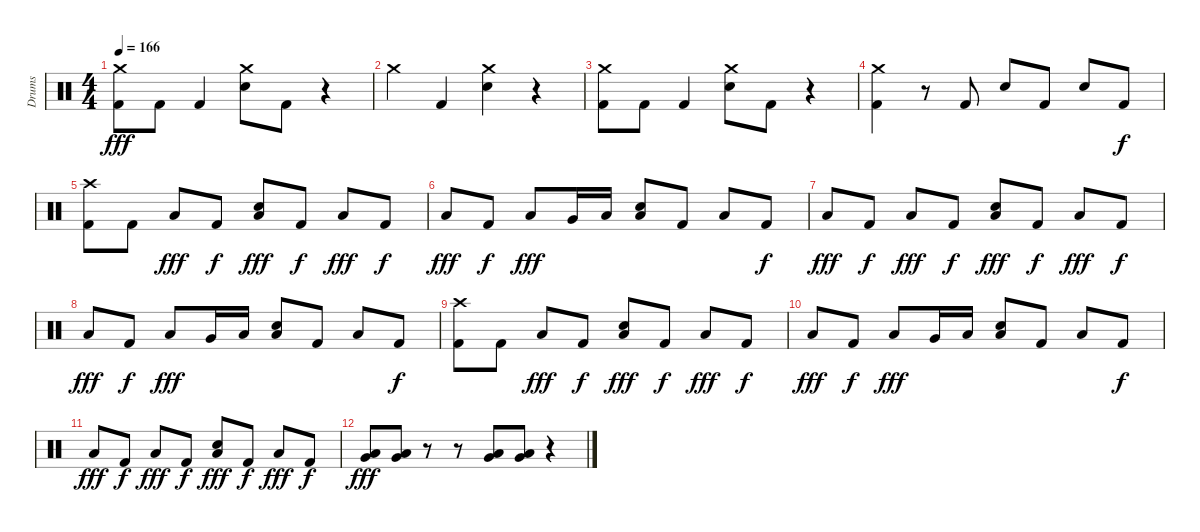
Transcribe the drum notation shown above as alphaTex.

\track ("Drums" "Drums") {instrument percussion}
\staff {score}
\articulation defaults
\ts (4 4)
\tempo 166
\clef neutral
\ks c
("Crash medium (hit)" "Kick (hit) 2").8{dy fff} "Kick (hit) 2".8 "Kick (hit) 2".4 ("Crash medium (hit)" "Snare (hit) 2").8 "Kick (hit) 2".8 r.4 |
"Crash medium (hit)".4 "Kick (hit) 2".4 ("Crash medium (hit)" "Snare (hit) 2").4 r.4 |
("Crash medium (hit)" "Kick (hit) 2").8 "Kick (hit) 2".8 "Kick (hit) 2".4 ("Crash medium (hit)" "Snare (hit) 2").8 "Kick (hit) 2".8 r.4 |
("Crash medium (hit)" "Kick (hit) 2").4 r.8 "Kick (hit) 2".8 "Snare (hit) 2".8 "Kick (hit) 2".8 "Snare (hit) 2".8 "Kick (hit) 2".8{dy f} |
("Crash high (hit)" "Kick (hit) 2").8 "Kick (hit) 2".8 "Low Floor Tom (hit)".8{dy fff} "Kick (hit) 2".8{dy f} ("Snare (hit) 2" "Low Floor Tom (hit)").8{dy fff} "Kick (hit) 2".8{dy f} "Low Floor Tom (hit)".8{dy fff} "Kick (hit) 2".8{dy f} |
"Low Floor Tom (hit)".8{dy fff} "Kick (hit) 2".8{dy f} "Low Floor Tom (hit)".8{dy fff} "Very Low Tom (hit)".16 "Low Tom (hit)".16 ("Snare (hit) 2" "Low Floor Tom (hit)").8 "Kick (hit) 2".8 "Low Floor Tom (hit)".8 "Kick (hit) 2".8{dy f} |
"Low Floor Tom (hit)".8{dy fff} "Kick (hit) 2".8{dy f} "Low Floor Tom (hit)".8{dy fff} "Kick (hit) 2".8{dy f} ("Snare (hit) 2" "Low Floor Tom (hit)").8{dy fff} "Kick (hit) 2".8{dy f} "Low Floor Tom (hit)".8{dy fff} "Kick (hit) 2".8{dy f} |
"Low Floor Tom (hit)".8{dy fff} "Kick (hit) 2".8{dy f} "Low Floor Tom (hit)".8{dy fff} "Very Low Tom (hit)".16 "Low Tom (hit)".16 ("Snare (hit) 2" "Low Floor Tom (hit)").8 "Kick (hit) 2".8 "Low Floor Tom (hit)".8 "Kick (hit) 2".8{dy f} |
("Crash high (hit)" "Kick (hit) 2").8 "Kick (hit) 2".8 "Low Floor Tom (hit)".8{dy fff} "Kick (hit) 2".8{dy f} ("Snare (hit) 2" "Low Floor Tom (hit)").8{dy fff} "Kick (hit) 2".8{dy f} "Low Floor Tom (hit)".8{dy fff} "Kick (hit) 2".8{dy f} |
"Low Floor Tom (hit)".8{dy fff} "Kick (hit) 2".8{dy f} "Low Floor Tom (hit)".8{dy fff} "Very Low Tom (hit)".16 "Low Tom (hit)".16 ("Snare (hit) 2" "Low Floor Tom (hit)").8 "Kick (hit) 2".8 "Low Floor Tom (hit)".8 "Kick (hit) 2".8{dy f} |
"Low Floor Tom (hit)".8{dy fff} "Kick (hit) 2".8{dy f} "Low Floor Tom (hit)".8{dy fff} "Kick (hit) 2".8{dy f} ("Snare (hit) 2" "Low Floor Tom (hit)").8{dy fff} "Kick (hit) 2".8{dy f} "Low Floor Tom (hit)".8{dy fff} "Kick (hit) 2".8{dy f} |
("Low Floor Tom (hit)" "Very Low Tom (hit)").8{dy fff} ("Low Floor Tom (hit)" "Very Low Tom (hit)").8 r.8 r.8 ("Low Floor Tom (hit)" "Very Low Tom (hit)").8 ("Low Floor Tom (hit)" "Very Low Tom (hit)").8 r.4
